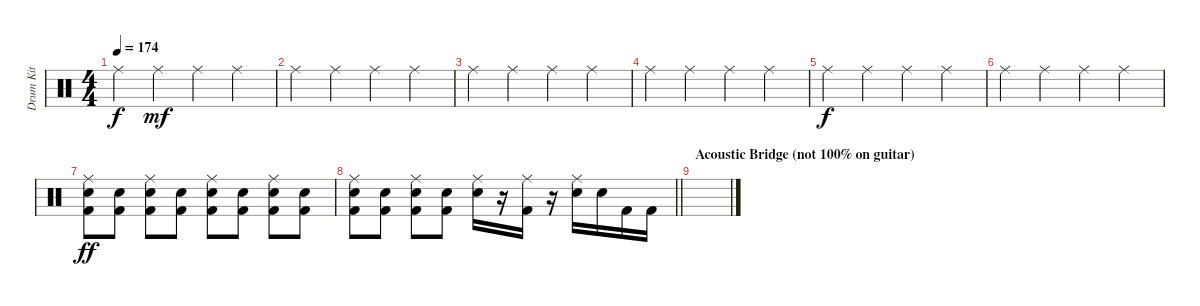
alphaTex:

\track ("Drum Kit" "Drum Kit") {instrument percussion}
\staff {score}
\articulation defaults
\ts (4 4)
\tempo 174
\clef neutral
\ks c "Ride (middle)".4{dy f} "Ride (middle)".4{dy mf} "Ride (middle)".4 "Ride (middle)".4
|
"Ride (middle)".4 "Ride (middle)".4 "Ride (middle)".4 "Ride (middle)".4 |
"Ride (middle)".4 "Ride (middle)".4 "Ride (middle)".4 "Ride (middle)".4 |
"Ride (middle)".4 "Ride (middle)".4 "Ride (middle)".4 "Ride (middle)".4 |
"Ride (middle)".4{dy f} "Ride (middle)".4 "Ride (middle)".4 "Ride (middle)".4 |
"Ride (middle)".4 "Ride (middle)".4 "Ride (middle)".4 "Ride (middle)".4 |
("Ride (middle)" "Electric Snare (hit)" "Kick (hit) 2").8{dy ff} ("Electric Snare (hit)" "Kick (hit) 2").8 ("Ride (middle)" "Electric Snare (hit)" "Kick (hit) 2").8 ("Electric Snare (hit)" "Kick (hit) 2").8 ("Ride (middle)" "Electric Snare (hit)" "Kick (hit) 2").8 ("Electric Snare (hit)" "Kick (hit) 2").8 ("Ride (middle)" "Electric Snare (hit)" "Kick (hit) 2").8 ("Electric Snare (hit)" "Kick (hit) 2").8 |
\barLineRight lightlight
("Ride (middle)" "Electric Snare (hit)" "Kick (hit) 2").8 ("Electric Snare (hit)" "Kick (hit) 2").8 ("Ride (middle)" "Electric Snare (hit)" "Kick (hit) 2").8 ("Electric Snare (hit)" "Kick (hit) 2").8 ("Ride (middle)" "Electric Snare (hit)").16 r.16 ("Ride (middle)" "Kick (hit) 2").16 r.16 ("Ride (middle)" "Electric Snare (hit)").16 "Electric Snare (hit)".16 "Kick (hit) 2".16 "Kick (hit) 2".16 |
\section ("" "Acoustic Bridge (not 100% on guitar)")
